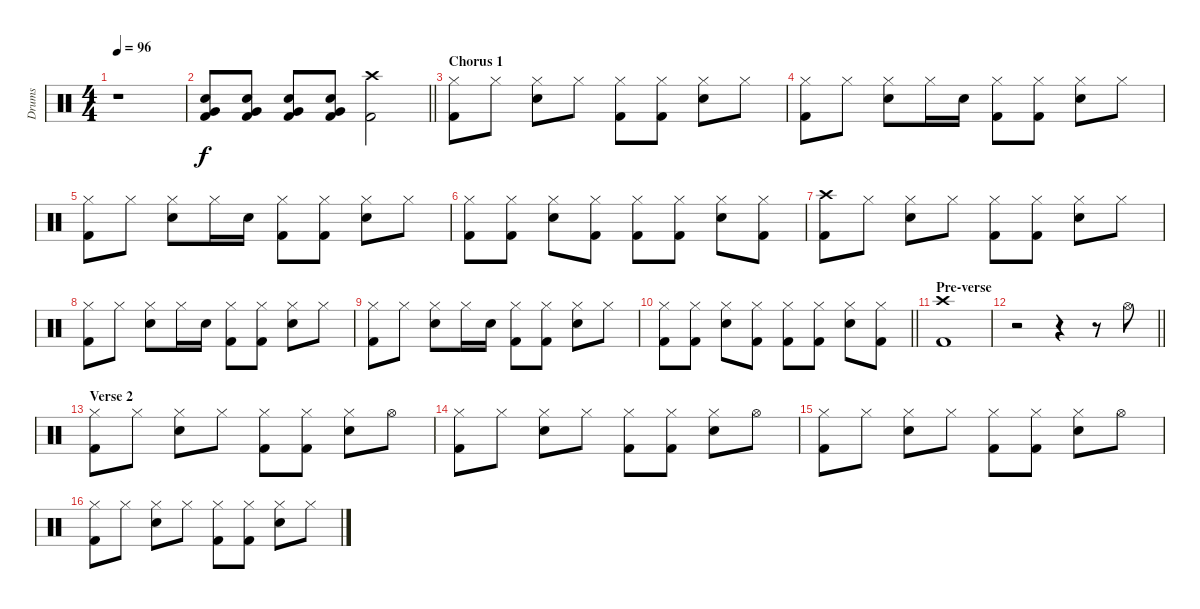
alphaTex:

\track ("Drums" "Drums") {instrument percussion}
\staff {score}
\articulation defaults
\ts (4 4)
\tempo 96
\clef neutral
\ks c
r.1{dy f} |
\barLineRight lightlight
("Very Low Tom (hit)" "Electric Snare (hit)" "Kick (hit) 2").8 ("Very Low Tom (hit)" "Electric Snare (hit)" "Kick (hit) 2").8 ("Very Low Tom (hit)" "Electric Snare (hit)" "Kick (hit) 2").8 ("Very Low Tom (hit)" "Electric Snare (hit)" "Kick (hit) 2").8 ("Crash high (hit)" "Kick (hit) 2").2 |
\section ("" "Chorus 1")
("Hi-Hat (closed)" "Kick (hit) 2").8 "Hi-Hat (closed)".8 ("Hi-Hat (closed)" "Electric Snare (hit)").8 "Hi-Hat (closed)".8 ("Hi-Hat (closed)" "Kick (hit) 2").8 ("Hi-Hat (closed)" "Kick (hit) 2").8 ("Hi-Hat (closed)" "Electric Snare (hit)").8 "Hi-Hat (closed)".8 |
("Hi-Hat (closed)" "Kick (hit) 2").8 "Hi-Hat (closed)".8 ("Hi-Hat (closed)" "Electric Snare (hit)").8 "Hi-Hat (closed)".16 "Electric Snare (hit)".16 ("Hi-Hat (closed)" "Kick (hit) 2").8 ("Hi-Hat (closed)" "Kick (hit) 2").8 ("Hi-Hat (closed)" "Electric Snare (hit)").8 "Hi-Hat (closed)".8 |
("Hi-Hat (closed)" "Kick (hit) 2").8 "Hi-Hat (closed)".8 ("Hi-Hat (closed)" "Electric Snare (hit)").8 "Hi-Hat (closed)".16 "Electric Snare (hit)".16 ("Hi-Hat (closed)" "Kick (hit) 2").8 ("Hi-Hat (closed)" "Kick (hit) 2").8 ("Hi-Hat (closed)" "Electric Snare (hit)").8 "Hi-Hat (closed)".8 |
("Hi-Hat (closed)" "Kick (hit) 2").8 ("Hi-Hat (closed)" "Kick (hit) 2").8 ("Hi-Hat (closed)" "Electric Snare (hit)").8 ("Hi-Hat (closed)" "Kick (hit) 2").8 ("Hi-Hat (closed)" "Kick (hit) 2").8 ("Hi-Hat (closed)" "Kick (hit) 2").8 ("Hi-Hat (closed)" "Electric Snare (hit)").8 ("Hi-Hat (closed)" "Kick (hit) 2").8 |
("Crash high (hit)" "Kick (hit) 2").8 "Hi-Hat (closed)".8 ("Hi-Hat (closed)" "Electric Snare (hit)").8 "Hi-Hat (closed)".8 ("Hi-Hat (closed)" "Kick (hit) 2").8 ("Hi-Hat (closed)" "Kick (hit) 2").8 ("Hi-Hat (closed)" "Electric Snare (hit)").8 "Hi-Hat (closed)".8 |
("Hi-Hat (closed)" "Kick (hit) 2").8 "Hi-Hat (closed)".8 ("Hi-Hat (closed)" "Electric Snare (hit)").8 "Hi-Hat (closed)".16 "Electric Snare (hit)".16 ("Hi-Hat (closed)" "Kick (hit) 2").8 ("Hi-Hat (closed)" "Kick (hit) 2").8 ("Hi-Hat (closed)" "Electric Snare (hit)").8 "Hi-Hat (closed)".8 |
("Hi-Hat (closed)" "Kick (hit) 2").8 "Hi-Hat (closed)".8 ("Hi-Hat (closed)" "Electric Snare (hit)").8 "Hi-Hat (closed)".16 "Electric Snare (hit)".16 ("Hi-Hat (closed)" "Kick (hit) 2").8 ("Hi-Hat (closed)" "Kick (hit) 2").8 ("Hi-Hat (closed)" "Electric Snare (hit)").8 "Hi-Hat (closed)".8 |
\barLineRight lightlight
("Hi-Hat (closed)" "Kick (hit) 2").8 ("Hi-Hat (closed)" "Kick (hit) 2").8 ("Hi-Hat (closed)" "Electric Snare (hit)").8 ("Hi-Hat (closed)" "Kick (hit) 2").8 ("Hi-Hat (closed)" "Kick (hit) 2").8 ("Hi-Hat (closed)" "Kick (hit) 2").8 ("Hi-Hat (closed)" "Electric Snare (hit)").8 ("Hi-Hat (closed)" "Kick (hit) 2").8 |
\section ("" "Pre-verse")
("Crash high (hit)" "Kick (hit) 2").1 |
\barLineRight lightlight
r.2 r.4 r.8 "Hi-Hat (open)".8 |
\section ("" "Verse 2")
("Hi-Hat (closed)" "Kick (hit) 2").8 "Hi-Hat (closed)".8 ("Hi-Hat (closed)" "Electric Snare (hit)").8 "Hi-Hat (closed)".8 ("Hi-Hat (closed)" "Kick (hit) 2").8 ("Hi-Hat (closed)" "Kick (hit) 2").8 ("Hi-Hat (closed)" "Electric Snare (hit)").8 "Hi-Hat (open)".8 |
("Hi-Hat (closed)" "Kick (hit) 2").8 "Hi-Hat (closed)".8 ("Hi-Hat (closed)" "Electric Snare (hit)").8 "Hi-Hat (closed)".8 ("Hi-Hat (closed)" "Kick (hit) 2").8 ("Hi-Hat (closed)" "Kick (hit) 2").8 ("Hi-Hat (closed)" "Electric Snare (hit)").8 "Hi-Hat (open)".8 |
("Hi-Hat (closed)" "Kick (hit) 2").8 "Hi-Hat (closed)".8 ("Hi-Hat (closed)" "Electric Snare (hit)").8 "Hi-Hat (closed)".8 ("Hi-Hat (closed)" "Kick (hit) 2").8 ("Hi-Hat (closed)" "Kick (hit) 2").8 ("Hi-Hat (closed)" "Electric Snare (hit)").8 "Hi-Hat (open)".8 |
("Hi-Hat (closed)" "Kick (hit) 2").8 "Hi-Hat (closed)".8 ("Hi-Hat (closed)" "Electric Snare (hit)").8 "Hi-Hat (closed)".8 ("Hi-Hat (closed)" "Kick (hit) 2").8 ("Hi-Hat (closed)" "Kick (hit) 2").8 ("Hi-Hat (closed)" "Electric Snare (hit)").8 "Hi-Hat (closed)".8
